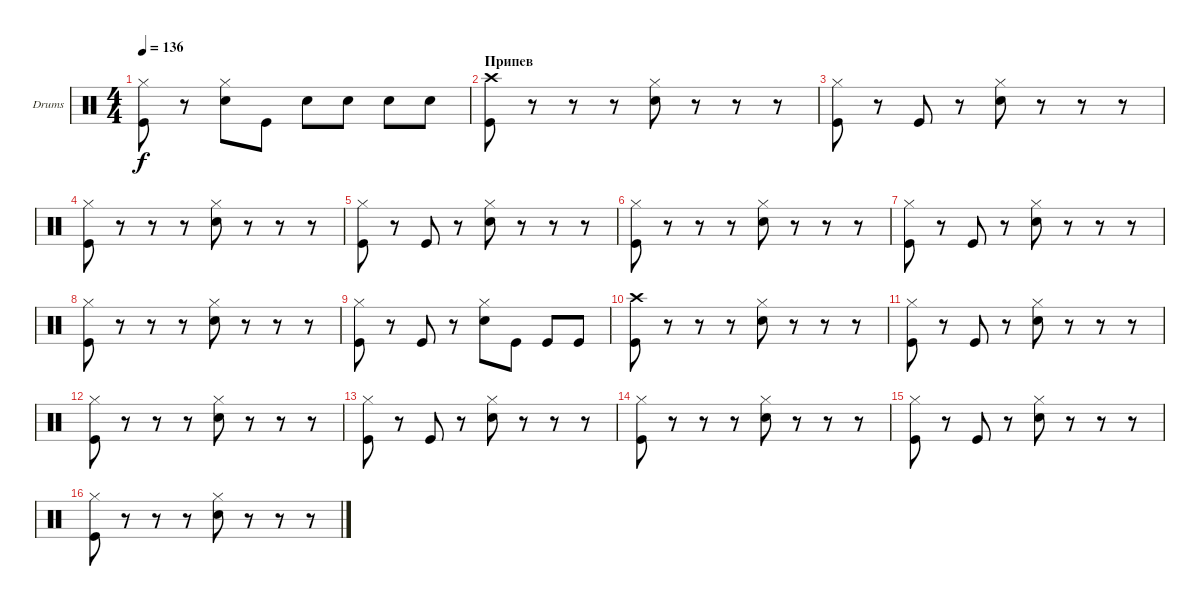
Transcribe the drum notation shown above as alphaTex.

\defaultSystemsLayout 4
\bracketExtendMode groupsimilarinstruments
\firstSystemTrackNameOrientation horizontal
\otherSystemsTrackNameOrientation horizontal
\track ("Барабаны" "Drums") {instrument percussion}
\staff {score}
\articulation defaults
\ts (4 4)
\tempo 136
\clef neutral
\ks c
("Hi-Hat (closed)" "Kick (hit)").8{dy f} r.8 ("Hi-Hat (closed)" "Snare (hit) 2").8 "Kick (hit)".8 "Snare (hit) 2".8 "Snare (hit) 2".8 "Snare (hit) 2".8 "Snare (hit) 2".8 |
\section ("" "Припев")
("Crash high (hit)" "Kick (hit)").8 r.8 r.8 r.8 ("Hi-Hat (closed)" "Snare (hit) 2").8 r.8 r.8 r.8 |
("Hi-Hat (closed)" "Kick (hit)").8 r.8 "Kick (hit)".8 r.8 ("Hi-Hat (closed)" "Snare (hit) 2").8 r.8 r.8 r.8 |
("Hi-Hat (closed)" "Kick (hit)").8 r.8 r.8 r.8 ("Hi-Hat (closed)" "Snare (hit) 2").8 r.8 r.8 r.8 |
("Hi-Hat (closed)" "Kick (hit)").8 r.8 "Kick (hit)".8 r.8 ("Hi-Hat (closed)" "Snare (hit) 2").8 r.8 r.8 r.8 |
("Hi-Hat (closed)" "Kick (hit)").8 r.8 r.8 r.8 ("Hi-Hat (closed)" "Snare (hit) 2").8 r.8 r.8 r.8 |
("Hi-Hat (closed)" "Kick (hit)").8 r.8 "Kick (hit)".8 r.8 ("Hi-Hat (closed)" "Snare (hit) 2").8 r.8 r.8 r.8 |
("Hi-Hat (closed)" "Kick (hit)").8 r.8 r.8 r.8 ("Hi-Hat (closed)" "Snare (hit) 2").8 r.8 r.8 r.8 |
("Hi-Hat (closed)" "Kick (hit)").8 r.8 "Kick (hit)".8 r.8 ("Hi-Hat (closed)" "Snare (hit) 2").8 "Kick (hit)".8 "Kick (hit)".8 "Kick (hit)".8 |
("Crash high (hit)" "Kick (hit)").8 r.8 r.8 r.8 ("Hi-Hat (closed)" "Snare (hit) 2").8 r.8 r.8 r.8 |
("Hi-Hat (closed)" "Kick (hit)").8 r.8 "Kick (hit)".8 r.8 ("Hi-Hat (closed)" "Snare (hit) 2").8 r.8 r.8 r.8 |
("Hi-Hat (closed)" "Kick (hit)").8 r.8 r.8 r.8 ("Hi-Hat (closed)" "Snare (hit) 2").8 r.8 r.8 r.8 |
("Hi-Hat (closed)" "Kick (hit)").8 r.8 "Kick (hit)".8 r.8 ("Hi-Hat (closed)" "Snare (hit) 2").8 r.8 r.8 r.8 |
("Hi-Hat (closed)" "Kick (hit)").8 r.8 r.8 r.8 ("Hi-Hat (closed)" "Snare (hit) 2").8 r.8 r.8 r.8 |
("Hi-Hat (closed)" "Kick (hit)").8 r.8 "Kick (hit)".8 r.8 ("Hi-Hat (closed)" "Snare (hit) 2").8 r.8 r.8 r.8 |
("Hi-Hat (closed)" "Kick (hit)").8 r.8 r.8 r.8 ("Hi-Hat (closed)" "Snare (hit) 2").8 r.8 r.8 r.8
